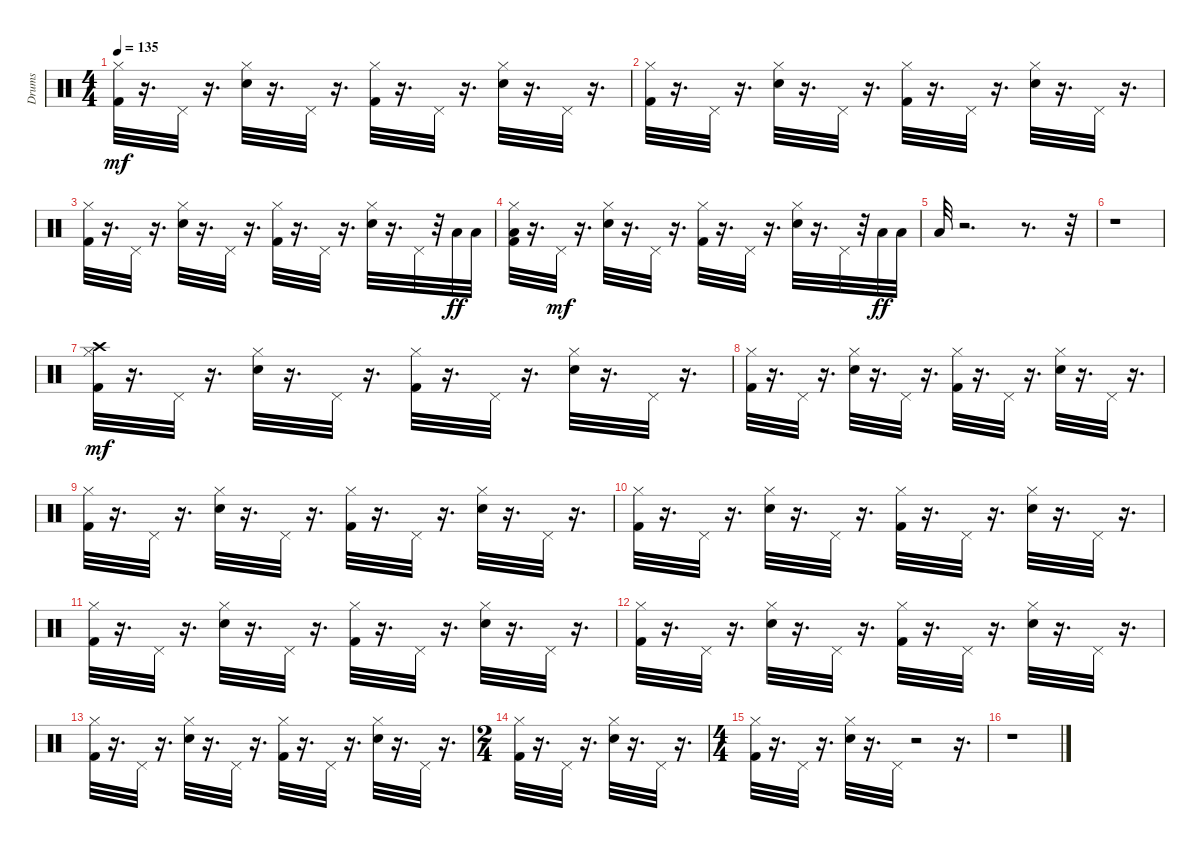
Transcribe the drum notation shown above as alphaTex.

\track ("Drums" "Drums") {instrument percussion}
\staff {score}
\articulation defaults
\ts (4 4)
\tempo 135
\clef neutral
\ks c
("Hi-Hat (closed)" "Kick (hit) 2").32{dy mf} r.16{d} "Pedal Hi-Hat (hit)".32 r.16{d} ("Hi-Hat (closed)" "Snare (hit) 2").32 r.16{d} "Pedal Hi-Hat (hit)".32 r.16{d} ("Hi-Hat (closed)" "Kick (hit) 2").32 r.16{d} "Pedal Hi-Hat (hit)".32 r.16{d} ("Hi-Hat (closed)" "Snare (hit) 2").32 r.16{d} "Pedal Hi-Hat (hit)".32 r.16{d} |
("Hi-Hat (closed)" "Kick (hit) 2").32 r.16{d} "Pedal Hi-Hat (hit)".32 r.16{d} ("Hi-Hat (closed)" "Snare (hit) 2").32 r.16{d} "Pedal Hi-Hat (hit)".32 r.16{d} ("Hi-Hat (closed)" "Kick (hit) 2").32 r.16{d} "Pedal Hi-Hat (hit)".32 r.16{d} ("Hi-Hat (closed)" "Snare (hit) 2").32 r.16{d} "Pedal Hi-Hat (hit)".32 r.16{d} |
("Hi-Hat (closed)" "Kick (hit) 2").32 r.16{d} "Pedal Hi-Hat (hit)".32 r.16{d} ("Hi-Hat (closed)" "Snare (hit) 2").32 r.16{d} "Pedal Hi-Hat (hit)".32 r.16{d} ("Hi-Hat (closed)" "Kick (hit) 2").32 r.16{d} "Pedal Hi-Hat (hit)".32 r.16{d} ("Hi-Hat (closed)" "Snare (hit) 2").32 r.16{d} "Pedal Hi-Hat (hit)".32 r.32 "Low Tom (hit)".32{dy ff} "Low Tom (hit)".32 |
("Hi-Hat (closed)" "Kick (hit) 2" "Low Tom (hit)").32 r.16{d} "Pedal Hi-Hat (hit)".32{dy mf} r.16{d} ("Hi-Hat (closed)" "Snare (hit) 2").32 r.16{d} "Pedal Hi-Hat (hit)".32 r.16{d} ("Hi-Hat (closed)" "Kick (hit) 2").32 r.16{d} "Pedal Hi-Hat (hit)".32 r.16{d} ("Hi-Hat (closed)" "Snare (hit) 2").32 r.16{d} "Pedal Hi-Hat (hit)".32 r.32 "Low Tom (hit)".32{dy ff} "Low Tom (hit)".32 |
"Low Tom (hit)".32 r.2{d} r.8{d} r.32 |
r.1 |
("Hi-Hat (closed)" "Kick (hit) 2" "Crash high (hit)").32{dy mf} r.16{d} "Pedal Hi-Hat (hit)".32 r.16{d} ("Hi-Hat (closed)" "Snare (hit) 2").32 r.16{d} "Pedal Hi-Hat (hit)".32 r.16{d} ("Hi-Hat (closed)" "Kick (hit) 2").32 r.16{d} "Pedal Hi-Hat (hit)".32 r.16{d} ("Hi-Hat (closed)" "Snare (hit) 2").32 r.16{d} "Pedal Hi-Hat (hit)".32 r.16{d} |
("Hi-Hat (closed)" "Kick (hit) 2").32 r.16{d} "Pedal Hi-Hat (hit)".32 r.16{d} ("Hi-Hat (closed)" "Snare (hit) 2").32 r.16{d} "Pedal Hi-Hat (hit)".32 r.16{d} ("Hi-Hat (closed)" "Kick (hit) 2").32 r.16{d} "Pedal Hi-Hat (hit)".32 r.16{d} ("Hi-Hat (closed)" "Snare (hit) 2").32 r.16{d} "Pedal Hi-Hat (hit)".32 r.16{d} |
("Hi-Hat (closed)" "Kick (hit) 2").32 r.16{d} "Pedal Hi-Hat (hit)".32 r.16{d} ("Hi-Hat (closed)" "Snare (hit) 2").32 r.16{d} "Pedal Hi-Hat (hit)".32 r.16{d} ("Hi-Hat (closed)" "Kick (hit) 2").32 r.16{d} "Pedal Hi-Hat (hit)".32 r.16{d} ("Hi-Hat (closed)" "Snare (hit) 2").32 r.16{d} "Pedal Hi-Hat (hit)".32 r.16{d} |
("Hi-Hat (closed)" "Kick (hit) 2").32 r.16{d} "Pedal Hi-Hat (hit)".32 r.16{d} ("Hi-Hat (closed)" "Snare (hit) 2").32 r.16{d} "Pedal Hi-Hat (hit)".32 r.16{d} ("Hi-Hat (closed)" "Kick (hit) 2").32 r.16{d} "Pedal Hi-Hat (hit)".32 r.16{d} ("Hi-Hat (closed)" "Snare (hit) 2").32 r.16{d} "Pedal Hi-Hat (hit)".32 r.16{d} |
("Hi-Hat (closed)" "Kick (hit) 2").32 r.16{d} "Pedal Hi-Hat (hit)".32 r.16{d} ("Hi-Hat (closed)" "Snare (hit) 2").32 r.16{d} "Pedal Hi-Hat (hit)".32 r.16{d} ("Hi-Hat (closed)" "Kick (hit) 2").32 r.16{d} "Pedal Hi-Hat (hit)".32 r.16{d} ("Hi-Hat (closed)" "Snare (hit) 2").32 r.16{d} "Pedal Hi-Hat (hit)".32 r.16{d} |
("Hi-Hat (closed)" "Kick (hit) 2").32 r.16{d} "Pedal Hi-Hat (hit)".32 r.16{d} ("Hi-Hat (closed)" "Snare (hit) 2").32 r.16{d} "Pedal Hi-Hat (hit)".32 r.16{d} ("Hi-Hat (closed)" "Kick (hit) 2").32 r.16{d} "Pedal Hi-Hat (hit)".32 r.16{d} ("Hi-Hat (closed)" "Snare (hit) 2").32 r.16{d} "Pedal Hi-Hat (hit)".32 r.16{d} |
("Hi-Hat (closed)" "Kick (hit) 2").32 r.16{d} "Pedal Hi-Hat (hit)".32 r.16{d} ("Hi-Hat (closed)" "Snare (hit) 2").32 r.16{d} "Pedal Hi-Hat (hit)".32 r.16{d} ("Hi-Hat (closed)" "Kick (hit) 2").32 r.16{d} "Pedal Hi-Hat (hit)".32 r.16{d} ("Hi-Hat (closed)" "Snare (hit) 2").32 r.16{d} "Pedal Hi-Hat (hit)".32 r.16{d} |
\ts (2 4)
("Hi-Hat (closed)" "Kick (hit) 2").32 r.16{d} "Pedal Hi-Hat (hit)".32 r.16{d} ("Hi-Hat (closed)" "Snare (hit) 2").32 r.16{d} "Pedal Hi-Hat (hit)".32 r.16{d} |
\ts (4 4)
("Hi-Hat (closed)" "Kick (hit) 2").32 r.16{d} "Pedal Hi-Hat (hit)".32 r.16{d} ("Hi-Hat (closed)" "Snare (hit) 2").32 r.16{d} "Pedal Hi-Hat (hit)".32 r.2 r.16{d} |
r.1
